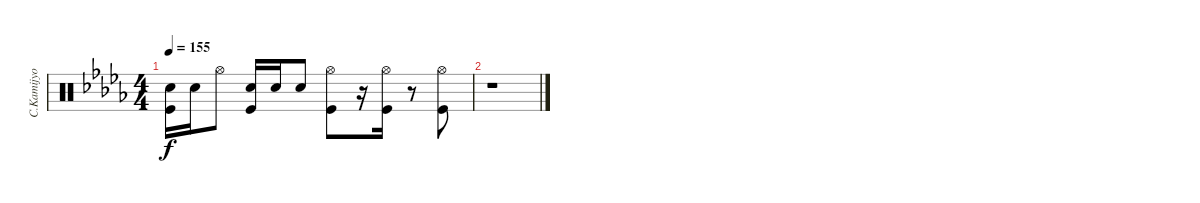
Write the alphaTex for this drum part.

\track ("C.Kamijyo DRUMS" "C.Kamijyo ") {instrument percussion}
\staff {score}
\articulation defaults
\ts (4 4)
\tempo 155
\clef neutral
\ks db
("Snare (hit) 2" "Kick (hit)").16{dy f} "Snare (hit) 2".16 "Hi-Hat (open)".8 ("Snare (hit) 2" "Kick (hit)").16 "Snare (hit) 2".16 "Snare (hit) 2".8 ("Hi-Hat (open)" "Kick (hit)").8 r.16 ("Hi-Hat (open)" "Kick (hit)").16 r.8 ("Hi-Hat (open)" "Kick (hit)").8 |
r.1
